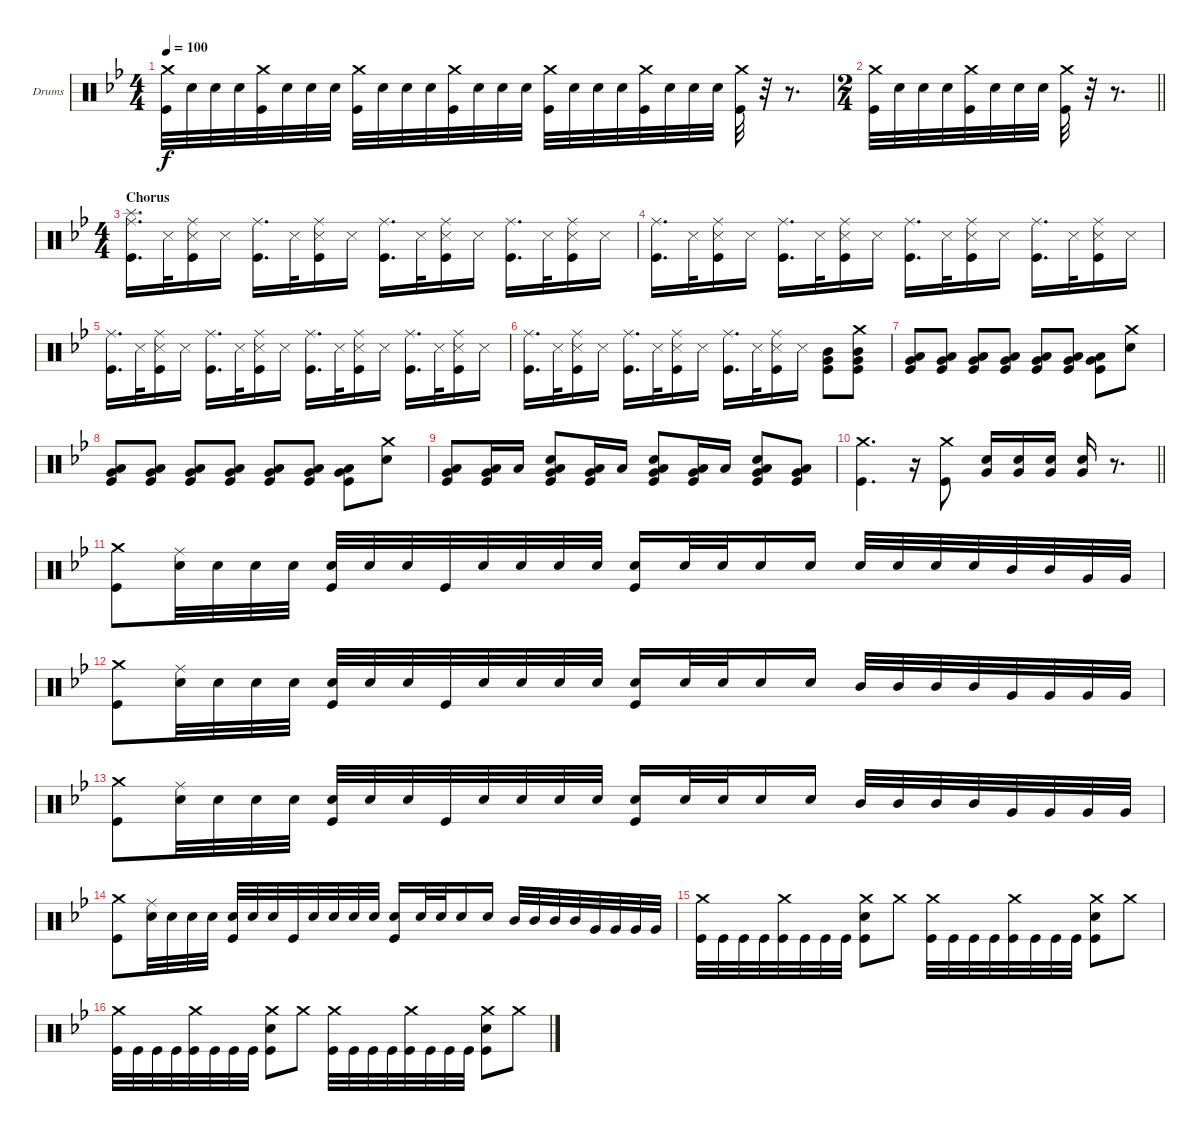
\bracketExtendMode groupsimilarinstruments
\firstSystemTrackNameOrientation horizontal
\otherSystemsTrackNameOrientation horizontal
\track ("Drumkit" "Drums") {instrument percussion}
\staff {score}
\articulation defaults
\ts (4 4)
\tempo 100
\clef neutral
\ks gminor
("Crash medium (hit)" "Kick (hit)").32{dy f} "Snare (hit) 2".32 "Snare (hit) 2".32 "Snare (hit) 2".32 ("Crash medium (hit)" "Kick (hit)").32 "Snare (hit) 2".32 "Snare (hit) 2".32 "Snare (hit) 2".32 ("Crash medium (hit)" "Kick (hit)").32 "Snare (hit) 2".32 "Snare (hit) 2".32 "Snare (hit) 2".32 ("Crash medium (hit)" "Kick (hit)").32 "Snare (hit) 2".32 "Snare (hit) 2".32 "Snare (hit) 2".32 ("Crash medium (hit)" "Kick (hit)").32 "Snare (hit) 2".32 "Snare (hit) 2".32 "Snare (hit) 2".32 ("Crash medium (hit)" "Kick (hit)").32 "Snare (hit) 2".32 "Snare (hit) 2".32 "Snare (hit) 2".32 ("Crash medium (hit)" "Kick (hit)").32 r.32 r.8{d} |
\ts (2 4)
\beaming (8 2 2)
\barLineRight lightlight
("Crash medium (hit)" "Kick (hit)").32 "Snare (hit) 2".32 "Snare (hit) 2".32 "Snare (hit) 2".32 ("Crash medium (hit)" "Kick (hit)").32 "Snare (hit) 2".32 "Snare (hit) 2".32 "Snare (hit) 2".32 ("Crash medium (hit)" "Kick (hit)").32 r.32 r.8{d} |
\ts (4 4)
\beaming (8 2 2 2 2)
\section ("" "Chorus")
("Splash (hit)" "Ride (middle)" "Kick (hit)").16{d} "Snare (side stick) 3".32 ("Snare (side stick) 3" "Ride (middle)" "Kick (hit)").16 "Snare (side stick) 3".16 ("Ride (middle)" "Kick (hit)").16{d} "Snare (side stick) 3".32 ("Snare (side stick) 3" "Ride (middle)" "Kick (hit)").16 "Snare (side stick) 3".16 ("Ride (middle)" "Kick (hit)").16{d} "Snare (side stick) 3".32 ("Snare (side stick) 3" "Ride (middle)" "Kick (hit)").16 "Snare (side stick) 3".16 ("Ride (middle)" "Kick (hit)").16{d} "Snare (side stick) 3".32 ("Snare (side stick) 3" "Ride (middle)" "Kick (hit)").16 "Snare (side stick) 3".16 |
("Ride (middle)" "Kick (hit)").16{d} "Snare (side stick) 3".32 ("Snare (side stick) 3" "Ride (middle)" "Kick (hit)").16 "Snare (side stick) 3".16 ("Ride (middle)" "Kick (hit)").16{d} "Snare (side stick) 3".32 ("Snare (side stick) 3" "Ride (middle)" "Kick (hit)").16 "Snare (side stick) 3".16 ("Ride (middle)" "Kick (hit)").16{d} "Snare (side stick) 3".32 ("Snare (side stick) 3" "Ride (middle)" "Kick (hit)").16 "Snare (side stick) 3".16 ("Ride (middle)" "Kick (hit)").16{d} "Snare (side stick) 3".32 ("Snare (side stick) 3" "Ride (middle)" "Kick (hit)").16 "Snare (side stick) 3".16 |
("Ride (middle)" "Kick (hit)").16{d} "Snare (side stick) 3".32 ("Snare (side stick) 3" "Ride (middle)" "Kick (hit)").16 "Snare (side stick) 3".16 ("Ride (middle)" "Kick (hit)").16{d} "Snare (side stick) 3".32 ("Snare (side stick) 3" "Ride (middle)" "Kick (hit)").16 "Snare (side stick) 3".16 ("Ride (middle)" "Kick (hit)").16{d} "Snare (side stick) 3".32 ("Snare (side stick) 3" "Ride (middle)" "Kick (hit)").16 "Snare (side stick) 3".16 ("Ride (middle)" "Kick (hit)").16{d} "Snare (side stick) 3".32 ("Snare (side stick) 3" "Ride (middle)" "Kick (hit)").16 "Snare (side stick) 3".16 |
("Ride (middle)" "Kick (hit)").16{d} "Snare (side stick) 3".32 ("Snare (side stick) 3" "Ride (middle)" "Kick (hit)").16 "Snare (side stick) 3".16 ("Ride (middle)" "Kick (hit)").16{d} "Snare (side stick) 3".32 ("Snare (side stick) 3" "Ride (middle)" "Kick (hit)").16 "Snare (side stick) 3".16 ("Ride (middle)" "Kick (hit)").16{d} "Snare (side stick) 3".32 ("Snare (side stick) 3" "Ride (middle)" "Kick (hit)").16 "Snare (side stick) 3".16 ("Mid Tom (hit)" "Very Low Tom (hit)" "Kick (hit)").8 ("Crash medium (hit)" "Mid Tom (hit)" "Very Low Tom (hit)" "Kick (hit)").8 |
("Low Tom (hit)" "Very Low Tom (hit)" "Kick (hit)").8 ("Low Tom (hit)" "Very Low Tom (hit)" "Kick (hit)").8 ("Low Tom (hit)" "Very Low Tom (hit)" "Kick (hit)").8 ("Low Tom (hit)" "Very Low Tom (hit)" "Kick (hit)").8 ("Low Tom (hit)" "Very Low Tom (hit)" "Kick (hit)").8 ("Low Tom (hit)" "Very Low Tom (hit)" "Kick (hit)").8 ("Low Tom (hit)" "Very Low Tom (hit)" "Kick (hit)").8 ("Crash medium (hit)" "Snare (hit) 2").8 |
("Low Tom (hit)" "Very Low Tom (hit)" "Kick (hit)").8 ("Low Tom (hit)" "Very Low Tom (hit)" "Kick (hit)").8 ("Low Tom (hit)" "Very Low Tom (hit)" "Kick (hit)").8 ("Low Tom (hit)" "Very Low Tom (hit)" "Kick (hit)").8 ("Low Tom (hit)" "Very Low Tom (hit)" "Kick (hit)").8 ("Low Tom (hit)" "Very Low Tom (hit)" "Kick (hit)").8 ("Low Tom (hit)" "Very Low Tom (hit)" "Kick (hit)").8 ("Crash medium (hit)" "Snare (hit) 2").8 |
("Low Tom (hit)" "Very Low Tom (hit)" "Kick (hit)").8 ("Low Tom (hit)" "Very Low Tom (hit)" "Kick (hit)").16 "Low Tom (hit)".16 ("Low Tom (hit)" "Very Low Tom (hit)" "Snare (hit) 2" "Kick (hit)").8 ("Low Tom (hit)" "Very Low Tom (hit)" "Kick (hit)").16 "Low Tom (hit)".16 ("Low Tom (hit)" "Very Low Tom (hit)" "Snare (hit) 2" "Kick (hit)").8 ("Low Tom (hit)" "Very Low Tom (hit)" "Kick (hit)").16 "Low Tom (hit)".16 ("Low Tom (hit)" "Very Low Tom (hit)" "Snare (hit) 2" "Kick (hit)").8 ("Low Tom (hit)" "Very Low Tom (hit)" "Kick (hit)").8 |
\barLineRight lightlight
("Crash medium (hit)" "Kick (hit)").4{d} r.16 ("Crash medium (hit)" "Kick (hit)").8 ("Very Low Tom (hit)" "Snare (hit) 2").16 ("Very Low Tom (hit)" "Snare (hit) 2").16 ("Very Low Tom (hit)" "Snare (hit) 2").16 ("Very Low Tom (hit)" "Snare (hit) 2").16 r.8{d} |
("Crash medium (hit)" "Kick (hit)").8 ("Ride (middle)" "Snare (hit) 2").32 "Snare (hit) 2".32 "Snare (hit) 2".32 "Snare (hit) 2".32 ("Snare (hit) 2" "Kick (hit)").32 "Snare (hit) 2".32 "Snare (hit) 2".32 "Kick (hit)".32 "Snare (hit) 2".32 "Snare (hit) 2".32 "Snare (hit) 2".32 "Snare (hit) 2".32 ("Snare (hit) 2" "Kick (hit)").16 "Snare (hit) 2".32 "Snare (hit) 2".32 "Snare (hit) 2".16 "Snare (hit) 2".16 "Snare (hit) 2".32 "Snare (hit) 2".32 "Snare (hit) 2".32 "Snare (hit) 2".32 "Mid Tom (hit)".32 "Mid Tom (hit)".32 "Very Low Tom (hit)".32 "Very Low Tom (hit)".32 |
("Crash medium (hit)" "Kick (hit)").8 ("Ride (middle)" "Snare (hit) 2").32 "Snare (hit) 2".32 "Snare (hit) 2".32 "Snare (hit) 2".32 ("Snare (hit) 2" "Kick (hit)").32 "Snare (hit) 2".32 "Snare (hit) 2".32 "Kick (hit)".32 "Snare (hit) 2".32 "Snare (hit) 2".32 "Snare (hit) 2".32 "Snare (hit) 2".32 ("Snare (hit) 2" "Kick (hit)").16 "Snare (hit) 2".32 "Snare (hit) 2".32 "Snare (hit) 2".16 "Snare (hit) 2".16 "Mid Tom (hit)".32 "Mid Tom (hit)".32 "Mid Tom (hit)".32 "Mid Tom (hit)".32 "Very Low Tom (hit)".32 "Very Low Tom (hit)".32 "Very Low Tom (hit)".32 "Very Low Tom (hit)".32 |
("Crash medium (hit)" "Kick (hit)").8 ("Ride (middle)" "Snare (hit) 2").32 "Snare (hit) 2".32 "Snare (hit) 2".32 "Snare (hit) 2".32 ("Snare (hit) 2" "Kick (hit)").32 "Snare (hit) 2".32 "Snare (hit) 2".32 "Kick (hit)".32 "Snare (hit) 2".32 "Snare (hit) 2".32 "Snare (hit) 2".32 "Snare (hit) 2".32 ("Snare (hit) 2" "Kick (hit)").16 "Snare (hit) 2".32 "Snare (hit) 2".32 "Snare (hit) 2".16 "Snare (hit) 2".16 "Mid Tom (hit)".32 "Mid Tom (hit)".32 "Mid Tom (hit)".32 "Mid Tom (hit)".32 "Very Low Tom (hit)".32 "Very Low Tom (hit)".32 "Very Low Tom (hit)".32 "Very Low Tom (hit)".32 |
("Crash medium (hit)" "Kick (hit)").8 ("Ride (middle)" "Snare (hit) 2").32 "Snare (hit) 2".32 "Snare (hit) 2".32 "Snare (hit) 2".32 ("Snare (hit) 2" "Kick (hit)").32 "Snare (hit) 2".32 "Snare (hit) 2".32 "Kick (hit)".32 "Snare (hit) 2".32 "Snare (hit) 2".32 "Snare (hit) 2".32 "Snare (hit) 2".32 ("Snare (hit) 2" "Kick (hit)").16 "Snare (hit) 2".32 "Snare (hit) 2".32 "Snare (hit) 2".16 "Snare (hit) 2".16 "Mid Tom (hit)".32 "Mid Tom (hit)".32 "Mid Tom (hit)".32 "Mid Tom (hit)".32 "Very Low Tom (hit)".32 "Very Low Tom (hit)".32 "Very Low Tom (hit)".32 "Very Low Tom (hit)".32 |
("Crash medium (hit)" "Kick (hit)").32 "Kick (hit)".32 "Kick (hit)".32 "Kick (hit)".32 ("Crash medium (hit)" "Kick (hit)").32 "Kick (hit)".32 "Kick (hit)".32 "Kick (hit)".32 ("Crash medium (hit)" "Snare (hit) 2" "Kick (hit)").8 "Crash medium (hit)".8 ("Crash medium (hit)" "Kick (hit)").32 "Kick (hit)".32 "Kick (hit)".32 "Kick (hit)".32 ("Crash medium (hit)" "Kick (hit)").32 "Kick (hit)".32 "Kick (hit)".32 "Kick (hit)".32 ("Crash medium (hit)" "Snare (hit) 2" "Kick (hit)").8 "Crash medium (hit)".8 |
("Crash medium (hit)" "Kick (hit)").32 "Kick (hit)".32 "Kick (hit)".32 "Kick (hit)".32 ("Crash medium (hit)" "Kick (hit)").32 "Kick (hit)".32 "Kick (hit)".32 "Kick (hit)".32 ("Crash medium (hit)" "Snare (hit) 2" "Kick (hit)").8 "Crash medium (hit)".8 ("Crash medium (hit)" "Kick (hit)").32 "Kick (hit)".32 "Kick (hit)".32 "Kick (hit)".32 ("Crash medium (hit)" "Kick (hit)").32 "Kick (hit)".32 "Kick (hit)".32 "Kick (hit)".32 ("Crash medium (hit)" "Snare (hit) 2" "Kick (hit)").8 "Crash medium (hit)".8
